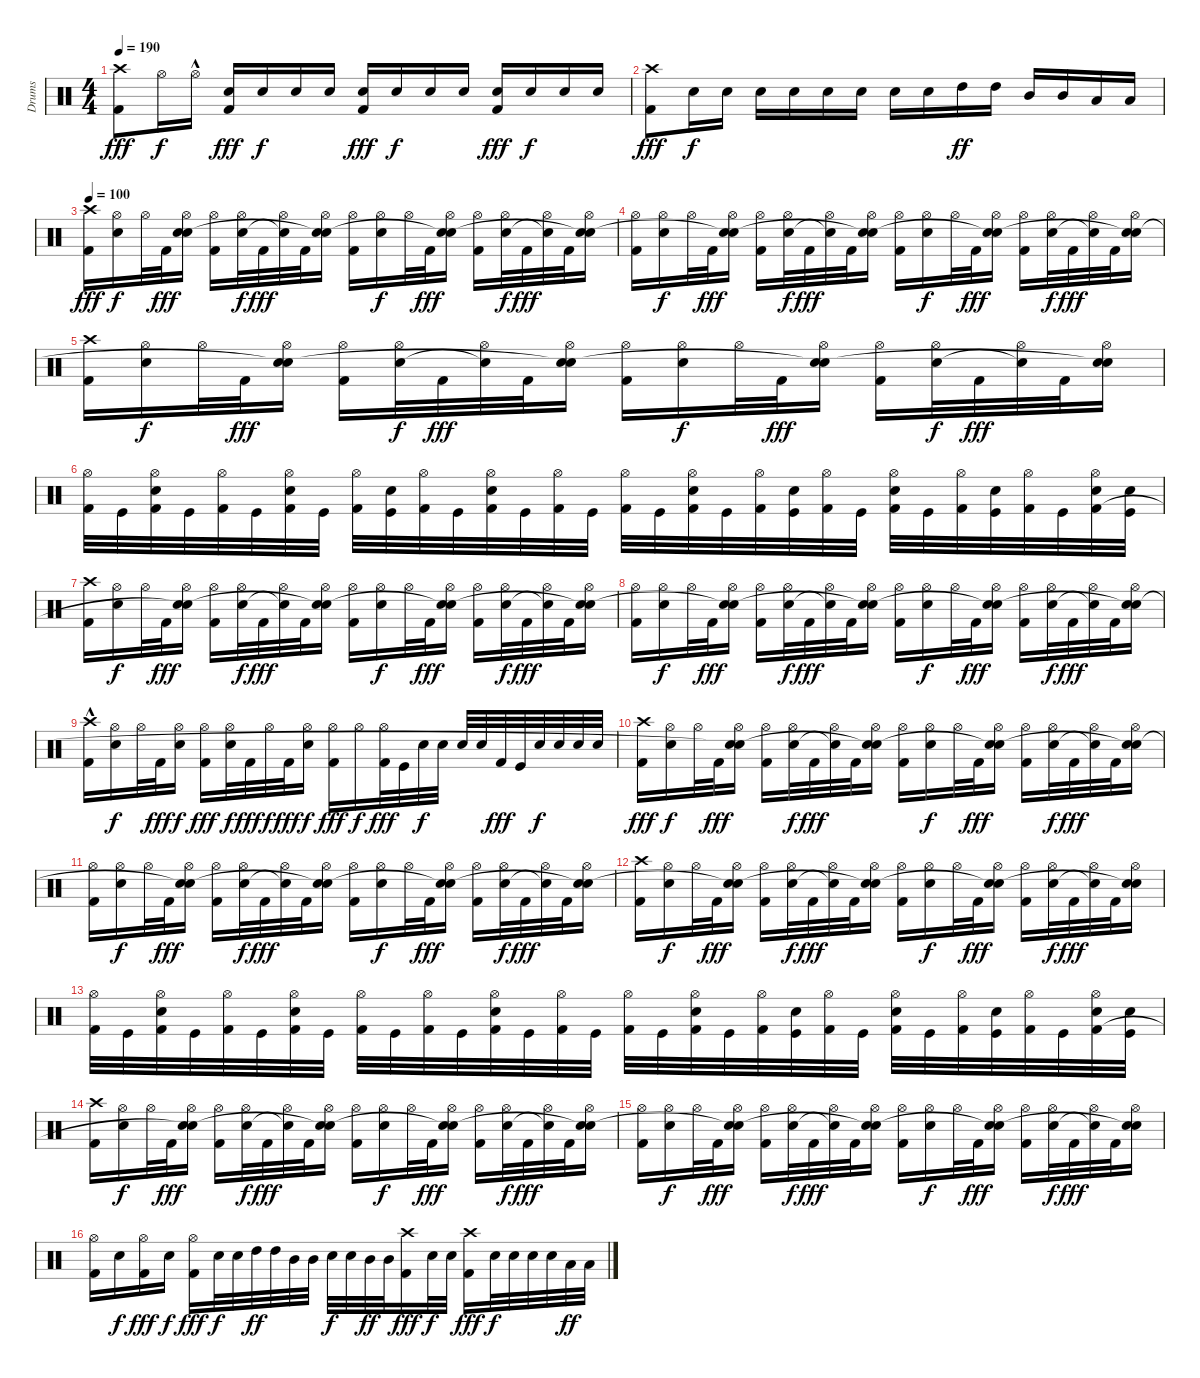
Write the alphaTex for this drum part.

\track ("Drums" "Drums") {instrument percussion}
\staff {score}
\articulation defaults
\ts (4 4)
\tempo 190
\clef neutral
\ks c
("Crash high (hit)" "Kick (hit) 2").8{dy fff} "Hi-Hat (open)".16{dy f} "Hi-Hat (open)"{hac}.16 ("Electric Snare (hit)" "Kick (hit) 2").16{dy fff} "Electric Snare (hit)".16{dy f} "Electric Snare (hit)".16 "Electric Snare (hit)".16 ("Electric Snare (hit)" "Kick (hit) 2").16{dy fff} "Electric Snare (hit)".16{dy f} "Electric Snare (hit)".16 "Electric Snare (hit)".16 ("Electric Snare (hit)" "Kick (hit) 2").16{dy fff} "Electric Snare (hit)".16{dy f} "Electric Snare (hit)".16 "Electric Snare (hit)".16 |
("Crash high (hit)" "Kick (hit) 2").8{dy fff} "Electric Snare (hit)".16{dy f} "Electric Snare (hit)".16 "Electric Snare (hit)".16 "Electric Snare (hit)".16 "Electric Snare (hit)".16 "Electric Snare (hit)".16 "Electric Snare (hit)".16 "Electric Snare (hit)".16 "High Tom (hit)".16{dy ff} "High Tom (hit)".16 "Mid Tom (hit)".16 "Mid Tom (hit)".16 "Low Tom (hit)".16 "Low Tom (hit)".16 |
\tempo 100
("Crash high (hit)" "Kick (hit) 2").16{dy fff volume 12} ("Hi-Hat (open)" "Electric Snare (hit)").16{dy f} "Hi-Hat (open)".32 "Kick (hit) 2".32{dy fff} ("Hi-Hat (open)" "Electric Snare (hit)" "Snare (hit)").16 ("Hi-Hat (open)" "Kick (hit) 2").16 ("Hi-Hat (open)" "Electric Snare (hit)").32{dy f} "Kick (hit) 2".32{dy fff} ("Hi-Hat (open)" "Snare (hit)"{t}).32 "Kick (hit) 2".32 ("Hi-Hat (open)" "Electric Snare (hit)" "Snare (hit)"{t}).16 ("Hi-Hat (open)" "Kick (hit) 2").16 ("Hi-Hat (open)" "Electric Snare (hit)").16{dy f} "Hi-Hat (open)".32 "Kick (hit) 2".32{dy fff} ("Hi-Hat (open)" "Electric Snare (hit)" "Snare (hit)"{t}).16 ("Hi-Hat (open)" "Kick (hit) 2").16 ("Hi-Hat (open)" "Electric Snare (hit)").32{dy f} "Kick (hit) 2".32{dy fff} ("Hi-Hat (open)" "Snare (hit)"{t}).32 "Kick (hit) 2".32 ("Hi-Hat (open)" "Electric Snare (hit)" "Snare (hit)"{t}).16 |
("Hi-Hat (open)" "Kick (hit) 2").16 ("Hi-Hat (open)" "Electric Snare (hit)").16{dy f} "Hi-Hat (open)".32 "Kick (hit) 2".32{dy fff} ("Hi-Hat (open)" "Electric Snare (hit)" "Snare (hit)"{t}).16 ("Hi-Hat (open)" "Kick (hit) 2").16 ("Hi-Hat (open)" "Electric Snare (hit)").32{dy f} "Kick (hit) 2".32{dy fff} ("Hi-Hat (open)" "Snare (hit)"{t}).32 "Kick (hit) 2".32 ("Hi-Hat (open)" "Electric Snare (hit)" "Snare (hit)"{t}).16 ("Hi-Hat (open)" "Kick (hit) 2").16 ("Hi-Hat (open)" "Electric Snare (hit)").16{dy f} "Hi-Hat (open)".32 "Kick (hit) 2".32{dy fff} ("Hi-Hat (open)" "Electric Snare (hit)" "Snare (hit)"{t}).16 ("Hi-Hat (open)" "Kick (hit) 2").16 ("Hi-Hat (open)" "Electric Snare (hit)").32{dy f} "Kick (hit) 2".32{dy fff} ("Hi-Hat (open)" "Snare (hit)"{t}).32 "Kick (hit) 2".32 ("Hi-Hat (open)" "Electric Snare (hit)" "Snare (hit)"{t}).16 |
("Crash high (hit)" "Kick (hit) 2").16 ("Hi-Hat (open)" "Electric Snare (hit)").16{dy f} "Hi-Hat (open)".32 "Kick (hit) 2".32{dy fff} ("Hi-Hat (open)" "Electric Snare (hit)" "Snare (hit)"{t}).16 ("Hi-Hat (open)" "Kick (hit) 2").16 ("Hi-Hat (open)" "Electric Snare (hit)").32{dy f} "Kick (hit) 2".32{dy fff} ("Hi-Hat (open)" "Snare (hit)"{t}).32 "Kick (hit) 2".32 ("Hi-Hat (open)" "Electric Snare (hit)" "Snare (hit)"{t}).16 ("Hi-Hat (open)" "Kick (hit) 2").16 ("Hi-Hat (open)" "Electric Snare (hit)").16{dy f} "Hi-Hat (open)".32 "Kick (hit) 2".32{dy fff} ("Hi-Hat (open)" "Electric Snare (hit)" "Snare (hit)"{t}).16 ("Hi-Hat (open)" "Kick (hit) 2").16 ("Hi-Hat (open)" "Electric Snare (hit)").32{dy f} "Kick (hit) 2".32{dy fff} ("Hi-Hat (open)" "Snare (hit)"{t}).32 "Kick (hit) 2".32 ("Hi-Hat (open)" "Electric Snare (hit)" "Snare (hit)"{t}).16 |
("Hi-Hat (open)" "Kick (hit) 2").32 "Kick (hit)".32 ("Hi-Hat (open)" "Electric Snare (hit)" "Kick (hit) 2").32 "Kick (hit)".32 ("Hi-Hat (open)" "Kick (hit) 2").32 "Kick (hit)".32 ("Hi-Hat (open)" "Electric Snare (hit)" "Kick (hit) 2").32 "Kick (hit)".32 ("Hi-Hat (open)" "Kick (hit) 2").32 ("Electric Snare (hit)" "Kick (hit)").32 ("Hi-Hat (open)" "Kick (hit) 2").32 "Kick (hit)".32 ("Hi-Hat (open)" "Electric Snare (hit)" "Kick (hit) 2").32 "Kick (hit)".32 ("Hi-Hat (open)" "Kick (hit) 2").32 "Kick (hit)".32 ("Hi-Hat (open)" "Kick (hit) 2").32 "Kick (hit)".32 ("Hi-Hat (open)" "Electric Snare (hit)" "Kick (hit) 2").32 "Kick (hit)".32 ("Hi-Hat (open)" "Kick (hit) 2").32 ("Electric Snare (hit)" "Kick (hit)").32 ("Hi-Hat (open)" "Kick (hit) 2").32 "Kick (hit)".32 ("Hi-Hat (open)" "Electric Snare (hit)" "Kick (hit) 2").32 "Kick (hit)".32 ("Hi-Hat (open)" "Kick (hit) 2").32 ("Electric Snare (hit)" "Kick (hit)").32 ("Hi-Hat (open)" "Kick (hit) 2").32 "Kick (hit)".32 ("Hi-Hat (open)" "Electric Snare (hit)" "Kick (hit) 2").32 ("Electric Snare (hit)" "Kick (hit)").32 |
("Crash high (hit)" "Kick (hit) 2").16 ("Hi-Hat (open)" "Electric Snare (hit)").16{dy f} "Hi-Hat (open)".32 "Kick (hit) 2".32{dy fff} ("Hi-Hat (open)" "Electric Snare (hit)" "Snare (hit)"{t}).16 ("Hi-Hat (open)" "Kick (hit) 2").16 ("Hi-Hat (open)" "Electric Snare (hit)").32{dy f} "Kick (hit) 2".32{dy fff} ("Hi-Hat (open)" "Snare (hit)"{t}).32 "Kick (hit) 2".32 ("Hi-Hat (open)" "Electric Snare (hit)" "Snare (hit)"{t}).16 ("Hi-Hat (open)" "Kick (hit) 2").16 ("Hi-Hat (open)" "Electric Snare (hit)").16{dy f} "Hi-Hat (open)".32 "Kick (hit) 2".32{dy fff} ("Hi-Hat (open)" "Electric Snare (hit)" "Snare (hit)"{t}).16 ("Hi-Hat (open)" "Kick (hit) 2").16 ("Hi-Hat (open)" "Electric Snare (hit)").32{dy f} "Kick (hit) 2".32{dy fff} ("Hi-Hat (open)" "Snare (hit)"{t}).32 "Kick (hit) 2".32 ("Hi-Hat (open)" "Electric Snare (hit)" "Snare (hit)"{t}).16 |
("Hi-Hat (open)" "Kick (hit) 2").16 ("Hi-Hat (open)" "Electric Snare (hit)").16{dy f} "Hi-Hat (open)".32 "Kick (hit) 2".32{dy fff} ("Hi-Hat (open)" "Electric Snare (hit)" "Snare (hit)"{t}).16 ("Hi-Hat (open)" "Kick (hit) 2").16 ("Hi-Hat (open)" "Electric Snare (hit)").32{dy f} "Kick (hit) 2".32{dy fff} ("Hi-Hat (open)" "Snare (hit)"{t}).32 "Kick (hit) 2".32 ("Hi-Hat (open)" "Electric Snare (hit)" "Snare (hit)"{t}).16 ("Hi-Hat (open)" "Kick (hit) 2").16 ("Hi-Hat (open)" "Electric Snare (hit)").16{dy f} "Hi-Hat (open)".32 "Kick (hit) 2".32{dy fff} ("Hi-Hat (open)" "Electric Snare (hit)" "Snare (hit)"{t}).16 ("Hi-Hat (open)" "Kick (hit) 2").16 ("Hi-Hat (open)" "Electric Snare (hit)").32{dy f} "Kick (hit) 2".32{dy fff} ("Hi-Hat (open)" "Snare (hit)"{t}).32 "Kick (hit) 2".32 ("Hi-Hat (open)" "Electric Snare (hit)" "Snare (hit)"{t}).16 |
("Crash high (hit)"{hac} "Kick (hit) 2").16 ("Hi-Hat (open)" "Electric Snare (hit)").16{dy f} "Hi-Hat (open)".32 "Kick (hit) 2".32{dy fff} ("Hi-Hat (open)" "Electric Snare (hit)").16{dy f} ("Hi-Hat (open)" "Kick (hit) 2").16{dy fff} ("Hi-Hat (open)" "Electric Snare (hit)").32{dy f} "Kick (hit) 2".32{dy fff} "Hi-Hat (open)".32{dy f} "Kick (hit) 2".32{dy fff} ("Hi-Hat (open)" "Electric Snare (hit)").16{dy f} ("Hi-Hat (open)" "Kick (hit) 2").16{dy fff} "Hi-Hat (open)".16{dy f} ("Hi-Hat (open)" "Kick (hit) 2").32{dy fff} "Kick (hit)".32 "Electric Snare (hit)".32{dy f} "Electric Snare (hit)".32 "Electric Snare (hit)".32 "Electric Snare (hit)".32 "Kick (hit) 2".32{dy fff} "Kick (hit)".32 "Electric Snare (hit)".32{dy f} "Electric Snare (hit)".32 "Electric Snare (hit)".32 "Electric Snare (hit)".32 |
("Crash high (hit)" "Kick (hit) 2").16{dy fff} ("Hi-Hat (open)" "Electric Snare (hit)").16{dy f} "Hi-Hat (open)".32 "Kick (hit) 2".32{dy fff} ("Hi-Hat (open)" "Electric Snare (hit)" "Snare (hit)"{t}).16 ("Hi-Hat (open)" "Kick (hit) 2").16 ("Hi-Hat (open)" "Electric Snare (hit)").32{dy f} "Kick (hit) 2".32{dy fff} ("Hi-Hat (open)" "Snare (hit)"{t}).32 "Kick (hit) 2".32 ("Hi-Hat (open)" "Electric Snare (hit)" "Snare (hit)"{t}).16 ("Hi-Hat (open)" "Kick (hit) 2").16 ("Hi-Hat (open)" "Electric Snare (hit)").16{dy f} "Hi-Hat (open)".32 "Kick (hit) 2".32{dy fff} ("Hi-Hat (open)" "Electric Snare (hit)" "Snare (hit)"{t}).16 ("Hi-Hat (open)" "Kick (hit) 2").16 ("Hi-Hat (open)" "Electric Snare (hit)").32{dy f} "Kick (hit) 2".32{dy fff} ("Hi-Hat (open)" "Snare (hit)"{t}).32 "Kick (hit) 2".32 ("Hi-Hat (open)" "Electric Snare (hit)" "Snare (hit)"{t}).16 |
("Hi-Hat (open)" "Kick (hit) 2").16 ("Hi-Hat (open)" "Electric Snare (hit)").16{dy f} "Hi-Hat (open)".32 "Kick (hit) 2".32{dy fff} ("Hi-Hat (open)" "Electric Snare (hit)" "Snare (hit)"{t}).16 ("Hi-Hat (open)" "Kick (hit) 2").16 ("Hi-Hat (open)" "Electric Snare (hit)").32{dy f} "Kick (hit) 2".32{dy fff} ("Hi-Hat (open)" "Snare (hit)"{t}).32 "Kick (hit) 2".32 ("Hi-Hat (open)" "Electric Snare (hit)" "Snare (hit)"{t}).16 ("Hi-Hat (open)" "Kick (hit) 2").16 ("Hi-Hat (open)" "Electric Snare (hit)").16{dy f} "Hi-Hat (open)".32 "Kick (hit) 2".32{dy fff} ("Hi-Hat (open)" "Electric Snare (hit)" "Snare (hit)"{t}).16 ("Hi-Hat (open)" "Kick (hit) 2").16 ("Hi-Hat (open)" "Electric Snare (hit)").32{dy f} "Kick (hit) 2".32{dy fff} ("Hi-Hat (open)" "Snare (hit)"{t}).32 "Kick (hit) 2".32 ("Hi-Hat (open)" "Electric Snare (hit)" "Snare (hit)"{t}).16 |
("Crash high (hit)" "Kick (hit) 2").16 ("Hi-Hat (open)" "Electric Snare (hit)").16{dy f} "Hi-Hat (open)".32 "Kick (hit) 2".32{dy fff} ("Hi-Hat (open)" "Electric Snare (hit)" "Snare (hit)"{t}).16 ("Hi-Hat (open)" "Kick (hit) 2").16 ("Hi-Hat (open)" "Electric Snare (hit)").32{dy f} "Kick (hit) 2".32{dy fff} ("Hi-Hat (open)" "Snare (hit)"{t}).32 "Kick (hit) 2".32 ("Hi-Hat (open)" "Electric Snare (hit)" "Snare (hit)"{t}).16 ("Hi-Hat (open)" "Kick (hit) 2").16 ("Hi-Hat (open)" "Electric Snare (hit)").16{dy f} "Hi-Hat (open)".32 "Kick (hit) 2".32{dy fff} ("Hi-Hat (open)" "Electric Snare (hit)" "Snare (hit)"{t}).16 ("Hi-Hat (open)" "Kick (hit) 2").16 ("Hi-Hat (open)" "Electric Snare (hit)").32{dy f} "Kick (hit) 2".32{dy fff} ("Hi-Hat (open)" "Snare (hit)"{t}).32 "Kick (hit) 2".32 ("Hi-Hat (open)" "Electric Snare (hit)" "Snare (hit)"{t}).16 |
("Hi-Hat (open)" "Kick (hit) 2").32 "Kick (hit)".32 ("Hi-Hat (open)" "Electric Snare (hit)" "Kick (hit) 2").32 "Kick (hit)".32 ("Hi-Hat (open)" "Kick (hit) 2").32 "Kick (hit)".32 ("Hi-Hat (open)" "Electric Snare (hit)" "Kick (hit) 2").32 "Kick (hit)".32 ("Hi-Hat (open)" "Kick (hit) 2").32 "Kick (hit)".32 ("Hi-Hat (open)" "Kick (hit) 2").32 "Kick (hit)".32 ("Hi-Hat (open)" "Electric Snare (hit)" "Kick (hit) 2").32 "Kick (hit)".32 ("Hi-Hat (open)" "Kick (hit) 2").32 "Kick (hit)".32 ("Hi-Hat (open)" "Kick (hit) 2").32 "Kick (hit)".32 ("Hi-Hat (open)" "Electric Snare (hit)" "Kick (hit) 2").32 "Kick (hit)".32 ("Hi-Hat (open)" "Kick (hit) 2").32 ("Electric Snare (hit)" "Kick (hit)").32 ("Hi-Hat (open)" "Kick (hit) 2").32 "Kick (hit)".32 ("Hi-Hat (open)" "Electric Snare (hit)" "Kick (hit) 2").32 "Kick (hit)".32 ("Hi-Hat (open)" "Kick (hit) 2").32 ("Electric Snare (hit)" "Kick (hit)").32 ("Hi-Hat (open)" "Kick (hit) 2").32 "Kick (hit)".32 ("Hi-Hat (open)" "Electric Snare (hit)" "Kick (hit) 2").32 ("Electric Snare (hit)" "Kick (hit)").32 |
("Crash high (hit)" "Kick (hit) 2").16 ("Hi-Hat (open)" "Electric Snare (hit)").16{dy f} "Hi-Hat (open)".32 "Kick (hit) 2".32{dy fff} ("Hi-Hat (open)" "Electric Snare (hit)" "Snare (hit)"{t}).16 ("Hi-Hat (open)" "Kick (hit) 2").16 ("Hi-Hat (open)" "Electric Snare (hit)").32{dy f} "Kick (hit) 2".32{dy fff} ("Hi-Hat (open)" "Snare (hit)"{t}).32 "Kick (hit) 2".32 ("Hi-Hat (open)" "Electric Snare (hit)" "Snare (hit)"{t}).16 ("Hi-Hat (open)" "Kick (hit) 2").16 ("Hi-Hat (open)" "Electric Snare (hit)").16{dy f} "Hi-Hat (open)".32 "Kick (hit) 2".32{dy fff} ("Hi-Hat (open)" "Electric Snare (hit)" "Snare (hit)"{t}).16 ("Hi-Hat (open)" "Kick (hit) 2").16 ("Hi-Hat (open)" "Electric Snare (hit)").32{dy f} "Kick (hit) 2".32{dy fff} ("Hi-Hat (open)" "Snare (hit)"{t}).32 "Kick (hit) 2".32 ("Hi-Hat (open)" "Electric Snare (hit)" "Snare (hit)"{t}).16 |
("Hi-Hat (open)" "Kick (hit) 2").16 ("Hi-Hat (open)" "Electric Snare (hit)").16{dy f} "Hi-Hat (open)".32 "Kick (hit) 2".32{dy fff} ("Hi-Hat (open)" "Electric Snare (hit)" "Snare (hit)"{t}).16 ("Hi-Hat (open)" "Kick (hit) 2").16 ("Hi-Hat (open)" "Electric Snare (hit)").32{dy f} "Kick (hit) 2".32{dy fff} ("Hi-Hat (open)" "Snare (hit)"{t}).32 "Kick (hit) 2".32 ("Hi-Hat (open)" "Electric Snare (hit)" "Snare (hit)"{t}).16 ("Hi-Hat (open)" "Kick (hit) 2").16 ("Hi-Hat (open)" "Electric Snare (hit)").16{dy f} "Hi-Hat (open)".32 "Kick (hit) 2".32{dy fff} ("Hi-Hat (open)" "Electric Snare (hit)" "Snare (hit)"{t}).16 ("Hi-Hat (open)" "Kick (hit) 2").16 ("Hi-Hat (open)" "Electric Snare (hit)").32{dy f} "Kick (hit) 2".32{dy fff} ("Hi-Hat (open)" "Snare (hit)"{t}).32 "Kick (hit) 2".32 ("Hi-Hat (open)" "Electric Snare (hit)" "Snare (hit)"{t}).16 |
("Hi-Hat (open)" "Kick (hit) 2").16 "Electric Snare (hit)".16{dy f} ("Hi-Hat (open)" "Kick (hit) 2").16{dy fff} "Electric Snare (hit)".16{dy f} ("Hi-Hat (open)" "Kick (hit) 2").16{dy fff} "Electric Snare (hit)".32{dy f} "Electric Snare (hit)".32 "High Tom (hit)".32{dy ff} "High Tom (hit)".32 "Mid Tom (hit)".32 "Mid Tom (hit)".32 "Electric Snare (hit)".32{dy f} "Electric Snare (hit)".32 "Mid Tom (hit)".32{dy ff} "Mid Tom (hit)".32 ("Crash high (hit)" "Kick (hit) 2").16{dy fff} "Electric Snare (hit)".32{dy f} "Electric Snare (hit)".32 ("Crash high (hit)" "Kick (hit) 2").16{dy fff} "Electric Snare (hit)".32{dy f} "Electric Snare (hit)".32 "Electric Snare (hit)".32 "Electric Snare (hit)".32 "Low Tom (hit)".32{dy ff} "Low Tom (hit)".32
